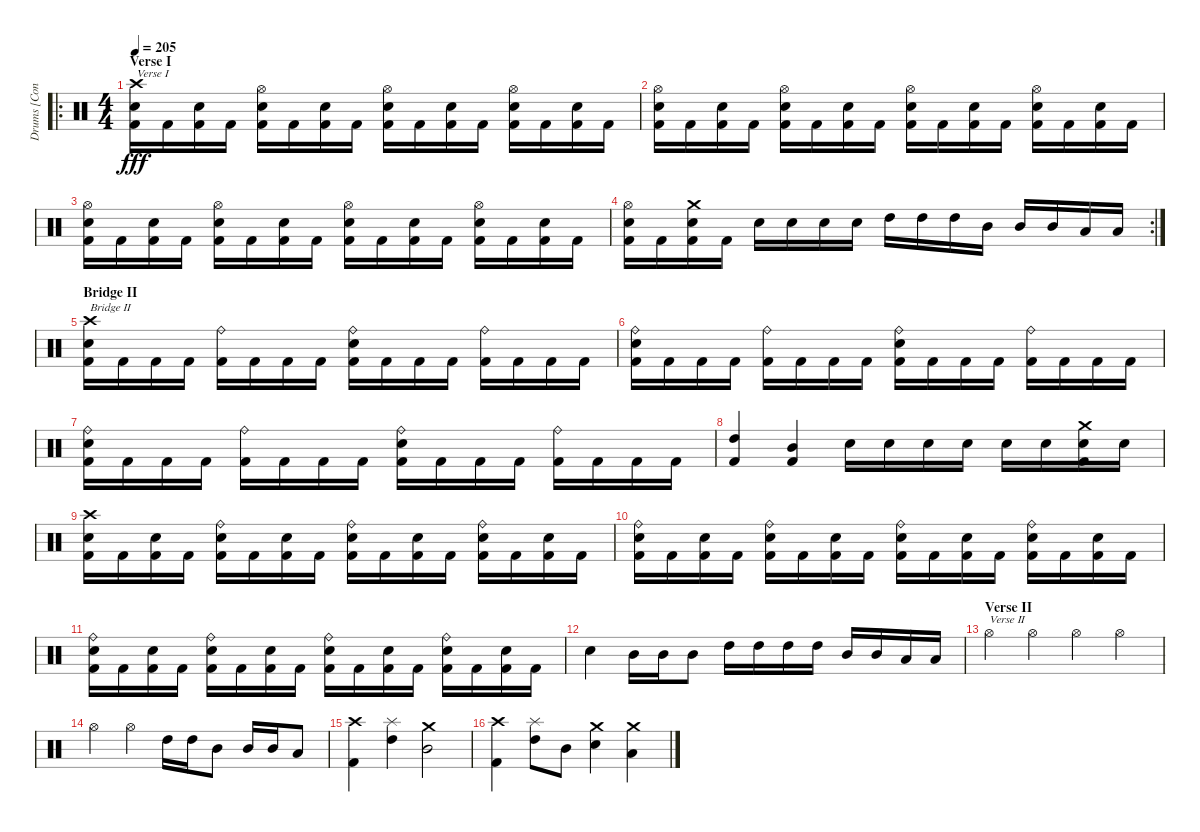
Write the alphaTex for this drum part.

\track ("Drums [Conny Peterson]" "Drums [Con") {instrument percussion}
\staff {score}
\articulation defaults
\ro
\ts (4 4)
\section ("" "Verse I")
\tempo 205
\clef neutral
\ks c
("Crash high (hit)" "Electric Snare (hit)" "Kick (hit) 2").16{txt "Verse I" dy fff} "Kick (hit) 2".16 ("Electric Snare (hit)" "Kick (hit) 2").16 "Kick (hit) 2".16 ("Hi-Hat (open)" "Electric Snare (hit)" "Kick (hit) 2").16 "Kick (hit) 2".16 ("Electric Snare (hit)" "Kick (hit) 2").16 "Kick (hit) 2".16 ("Hi-Hat (open)" "Electric Snare (hit)" "Kick (hit) 2").16 "Kick (hit) 2".16 ("Electric Snare (hit)" "Kick (hit) 2").16 "Kick (hit) 2".16 ("Hi-Hat (open)" "Electric Snare (hit)" "Kick (hit) 2").16 "Kick (hit) 2".16 ("Electric Snare (hit)" "Kick (hit) 2").16 "Kick (hit) 2".16 |
("Hi-Hat (open)" "Electric Snare (hit)" "Kick (hit) 2").16 "Kick (hit) 2".16 ("Electric Snare (hit)" "Kick (hit) 2").16 "Kick (hit) 2".16 ("Hi-Hat (open)" "Electric Snare (hit)" "Kick (hit) 2").16 "Kick (hit) 2".16 ("Electric Snare (hit)" "Kick (hit) 2").16 "Kick (hit) 2".16 ("Hi-Hat (open)" "Electric Snare (hit)" "Kick (hit) 2").16 "Kick (hit) 2".16 ("Electric Snare (hit)" "Kick (hit) 2").16 "Kick (hit) 2".16 ("Hi-Hat (open)" "Electric Snare (hit)" "Kick (hit) 2").16 "Kick (hit) 2".16 ("Electric Snare (hit)" "Kick (hit) 2").16 "Kick (hit) 2".16 |
("Hi-Hat (open)" "Electric Snare (hit)" "Kick (hit) 2").16 "Kick (hit) 2".16 ("Electric Snare (hit)" "Kick (hit) 2").16 "Kick (hit) 2".16 ("Hi-Hat (open)" "Electric Snare (hit)" "Kick (hit) 2").16 "Kick (hit) 2".16 ("Electric Snare (hit)" "Kick (hit) 2").16 "Kick (hit) 2".16 ("Hi-Hat (open)" "Electric Snare (hit)" "Kick (hit) 2").16 "Kick (hit) 2".16 ("Electric Snare (hit)" "Kick (hit) 2").16 "Kick (hit) 2".16 ("Hi-Hat (open)" "Electric Snare (hit)" "Kick (hit) 2").16 "Kick (hit) 2".16 ("Electric Snare (hit)" "Kick (hit) 2").16 "Kick (hit) 2".16 |
\rc 2
("Hi-Hat (open)" "Electric Snare (hit)" "Kick (hit) 2").16 "Kick (hit) 2".16 ("Crash medium (hit)" "Electric Snare (hit)" "Kick (hit) 2").16 "Kick (hit) 2".16 "Electric Snare (hit)".16 "Electric Snare (hit)".16 "Electric Snare (hit)".16 "Electric Snare (hit)".16 "High Tom (hit)".16 "High Tom (hit)".16 "High Tom (hit)".16 "Mid Tom (hit)".16 "Mid Tom (hit)".16 "Mid Tom (hit)".16 "Low Tom (hit)".16 "Low Tom (hit)".16 |
\section ("" "Bridge II")
("Crash high (hit)" "Electric Snare (hit)" "Kick (hit) 2").16{txt "Bridge II"} "Kick (hit) 2".16 "Kick (hit) 2".16 "Kick (hit) 2".16 ("Ride (bell)" "Kick (hit) 2").16 "Kick (hit) 2".16 "Kick (hit) 2".16 "Kick (hit) 2".16 ("Ride (bell)" "Electric Snare (hit)" "Kick (hit) 2").16 "Kick (hit) 2".16 "Kick (hit) 2".16 "Kick (hit) 2".16 ("Ride (bell)" "Kick (hit) 2").16 "Kick (hit) 2".16 "Kick (hit) 2".16 "Kick (hit) 2".16 |
("Ride (bell)" "Electric Snare (hit)" "Kick (hit) 2").16 "Kick (hit) 2".16 "Kick (hit) 2".16 "Kick (hit) 2".16 ("Ride (bell)" "Kick (hit) 2").16 "Kick (hit) 2".16 "Kick (hit) 2".16 "Kick (hit) 2".16 ("Ride (bell)" "Electric Snare (hit)" "Kick (hit) 2").16 "Kick (hit) 2".16 "Kick (hit) 2".16 "Kick (hit) 2".16 ("Ride (bell)" "Kick (hit) 2").16 "Kick (hit) 2".16 "Kick (hit) 2".16 "Kick (hit) 2".16 |
("Ride (bell)" "Electric Snare (hit)" "Kick (hit) 2").16 "Kick (hit) 2".16 "Kick (hit) 2".16 "Kick (hit) 2".16 ("Ride (bell)" "Kick (hit) 2").16 "Kick (hit) 2".16 "Kick (hit) 2".16 "Kick (hit) 2".16 ("Ride (bell)" "Electric Snare (hit)" "Kick (hit) 2").16 "Kick (hit) 2".16 "Kick (hit) 2".16 "Kick (hit) 2".16 ("Ride (bell)" "Kick (hit) 2").16 "Kick (hit) 2".16 "Kick (hit) 2".16 "Kick (hit) 2".16 |
("High Tom (hit)" "Kick (hit) 2").4 ("Mid Tom (hit)" "Kick (hit) 2").4 "Electric Snare (hit)".16 "Electric Snare (hit)".16 "Electric Snare (hit)".16 "Electric Snare (hit)".16 "Electric Snare (hit)".16 "Electric Snare (hit)".16 ("Crash medium (hit)" "Electric Snare (hit)" "Kick (hit) 2").16 "Electric Snare (hit)".16 |
("Crash high (hit)" "Electric Snare (hit)" "Kick (hit) 2").16 "Kick (hit) 2".16 ("Electric Snare (hit)" "Kick (hit) 2").16 "Kick (hit) 2".16 ("Ride (bell)" "Electric Snare (hit)" "Kick (hit) 2").16 "Kick (hit) 2".16 ("Electric Snare (hit)" "Kick (hit) 2").16 "Kick (hit) 2".16 ("Ride (bell)" "Electric Snare (hit)" "Kick (hit) 2").16 "Kick (hit) 2".16 ("Electric Snare (hit)" "Kick (hit) 2").16 "Kick (hit) 2".16 ("Ride (bell)" "Electric Snare (hit)" "Kick (hit) 2").16 "Kick (hit) 2".16 ("Electric Snare (hit)" "Kick (hit) 2").16 "Kick (hit) 2".16 |
("Ride (bell)" "Electric Snare (hit)" "Kick (hit) 2").16 "Kick (hit) 2".16 ("Electric Snare (hit)" "Kick (hit) 2").16 "Kick (hit) 2".16 ("Ride (bell)" "Electric Snare (hit)" "Kick (hit) 2").16 "Kick (hit) 2".16 ("Electric Snare (hit)" "Kick (hit) 2").16 "Kick (hit) 2".16 ("Ride (bell)" "Electric Snare (hit)" "Kick (hit) 2").16 "Kick (hit) 2".16 ("Electric Snare (hit)" "Kick (hit) 2").16 "Kick (hit) 2".16 ("Ride (bell)" "Electric Snare (hit)" "Kick (hit) 2").16 "Kick (hit) 2".16 ("Electric Snare (hit)" "Kick (hit) 2").16 "Kick (hit) 2".16 |
("Ride (bell)" "Electric Snare (hit)" "Kick (hit) 2").16 "Kick (hit) 2".16 ("Electric Snare (hit)" "Kick (hit) 2").16 "Kick (hit) 2".16 ("Ride (bell)" "Electric Snare (hit)" "Kick (hit) 2").16 "Kick (hit) 2".16 ("Electric Snare (hit)" "Kick (hit) 2").16 "Kick (hit) 2".16 ("Ride (bell)" "Electric Snare (hit)" "Kick (hit) 2").16 "Kick (hit) 2".16 ("Electric Snare (hit)" "Kick (hit) 2").16 "Kick (hit) 2".16 ("Ride (bell)" "Electric Snare (hit)" "Kick (hit) 2").16 "Kick (hit) 2".16 ("Electric Snare (hit)" "Kick (hit) 2").16 "Kick (hit) 2".16 |
"Electric Snare (hit)".4 "Mid Tom (hit)".16 "Mid Tom (hit)".16 "Mid Tom (hit)".8 "High Tom (hit)".16 "High Tom (hit)".16 "High Tom (hit)".16 "High Tom (hit)".16 "Mid Tom (hit)".16 "Mid Tom (hit)".16 "Low Tom (hit)".16 "Low Tom (hit)".16 |
\section ("" "Verse II")
"Hi-Hat (open)".4{txt "Verse II"} "Hi-Hat (open)".4 "Hi-Hat (open)".4 "Hi-Hat (open)".4 |
"Hi-Hat (open)".4 "Hi-Hat (open)".4 "High Tom (hit)".16 "High Tom (hit)".16 "Mid Tom (hit)".8 "Mid Tom (hit)".16 "Mid Tom (hit)".16 "Low Tom (hit)".8 |
("Crash high (hit)" "Kick (hit) 2").4 ("Splash (hit)" "High Tom (hit)").4 ("Crash medium (hit)" "Mid Tom (hit)").2 |
("Crash high (hit)" "Kick (hit) 2").4 ("Splash (hit)" "High Tom (hit)").8 "Mid Tom (hit)".8 ("Crash medium (hit)" "Electric Snare (hit)").4 ("Crash medium (hit)" "Low Tom (hit)").4
